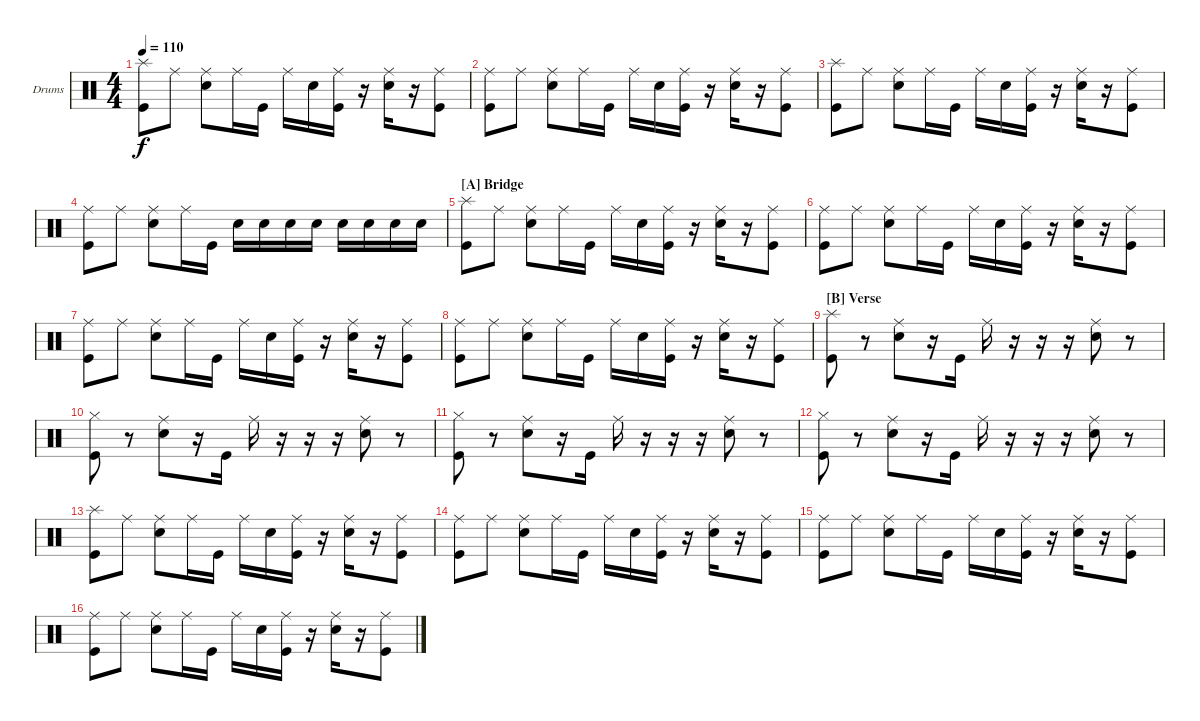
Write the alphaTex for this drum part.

\defaultSystemsLayout 4
\bracketExtendMode groupsimilarinstruments
\firstSystemTrackNameOrientation horizontal
\otherSystemsTrackNameOrientation horizontal
\track ("Drumkit" "Drums") {instrument percussion}
\staff {score}
\articulation defaults
\ts (4 4)
\tempo 110
\clef neutral
\ks c
("Splash (hit)" "Kick (hit)").8{dy f} "Ride (middle)".8 ("Snare (hit) 2" "Ride (middle)").8 "Ride (middle)".16 "Kick (hit)".16 "Ride (middle)".16 "Snare (hit) 2".16 ("Kick (hit)" "Ride (middle)").16 r.16 ("Snare (hit) 2" "Ride (middle)").16 r.16 ("Kick (hit)" "Ride (middle)").8 |
("Kick (hit)" "Ride (middle)").8 "Ride (middle)".8 ("Snare (hit) 2" "Ride (middle)").8 "Ride (middle)".16 "Kick (hit)".16 "Ride (middle)".16 "Snare (hit) 2".16 ("Kick (hit)" "Ride (middle)").16 r.16 ("Snare (hit) 2" "Ride (middle)").16 r.16 ("Kick (hit)" "Ride (middle)").8 |
("Splash (hit)" "Kick (hit)").8 "Ride (middle)".8 ("Snare (hit) 2" "Ride (middle)").8 "Ride (middle)".16 "Kick (hit)".16 "Ride (middle)".16 "Snare (hit) 2".16 ("Kick (hit)" "Ride (middle)").16 r.16 ("Snare (hit) 2" "Ride (middle)").16 r.16 ("Kick (hit)" "Ride (middle)").8 |
("Kick (hit)" "Ride (middle)").8 "Ride (middle)".8 ("Snare (hit) 2" "Ride (middle)").8 "Ride (middle)".16 "Kick (hit)".16 "Snare (hit) 2".16 "Snare (hit) 2".16 "Snare (hit) 2".16 "Snare (hit) 2".16 "Snare (hit) 2".16 "Snare (hit) 2".16 "Snare (hit) 2".16 "Snare (hit) 2".16 |
\section ("A" "Bridge ")
("Splash (hit)" "Kick (hit)").8 "Ride (middle)".8 ("Snare (hit) 2" "Ride (middle)").8 "Ride (middle)".16 "Kick (hit)".16 "Ride (middle)".16 "Snare (hit) 2".16 ("Kick (hit)" "Ride (middle)").16 r.16 ("Snare (hit) 2" "Ride (middle)").16 r.16 ("Kick (hit)" "Ride (middle)").8 |
("Kick (hit)" "Ride (middle)").8 "Ride (middle)".8 ("Snare (hit) 2" "Ride (middle)").8 "Ride (middle)".16 "Kick (hit)".16 "Ride (middle)".16 "Snare (hit) 2".16 ("Kick (hit)" "Ride (middle)").16 r.16 ("Snare (hit) 2" "Ride (middle)").16 r.16 ("Kick (hit)" "Ride (middle)").8 |
("Kick (hit)" "Ride (middle)").8 "Ride (middle)".8 ("Snare (hit) 2" "Ride (middle)").8 "Ride (middle)".16 "Kick (hit)".16 "Ride (middle)".16 "Snare (hit) 2".16 ("Kick (hit)" "Ride (middle)").16 r.16 ("Snare (hit) 2" "Ride (middle)").16 r.16 ("Kick (hit)" "Ride (middle)").8 |
("Kick (hit)" "Ride (middle)").8 "Ride (middle)".8 ("Snare (hit) 2" "Ride (middle)").8 "Ride (middle)".16 "Kick (hit)".16 "Ride (middle)".16 "Snare (hit) 2".16 ("Kick (hit)" "Ride (middle)").16 r.16 ("Snare (hit) 2" "Ride (middle)").16 r.16 ("Kick (hit)" "Ride (middle)").8 |
\section ("B" "Verse")
("Splash (hit)" "Kick (hit)").8 r.8 ("Snare (hit) 2" "Ride (middle)").8 r.16 "Kick (hit)".16 "Ride (middle)".16 r.16 r.16 r.16 ("Snare (hit) 2" "Ride (middle)").8 r.8 |
("Kick (hit)" "Hi-Hat (closed)").8 r.8 ("Snare (hit) 2" "Ride (middle)").8 r.16 "Kick (hit)".16 "Ride (middle)".16 r.16 r.16 r.16 ("Snare (hit) 2" "Ride (middle)").8 r.8 |
("Kick (hit)" "Hi-Hat (closed)").8 r.8 ("Snare (hit) 2" "Ride (middle)").8 r.16 "Kick (hit)".16 "Ride (middle)".16 r.16 r.16 r.16 ("Snare (hit) 2" "Ride (middle)").8 r.8 |
("Kick (hit)" "Hi-Hat (closed)").8 r.8 ("Snare (hit) 2" "Ride (middle)").8 r.16 "Kick (hit)".16 "Ride (middle)".16 r.16 r.16 r.16 ("Snare (hit) 2" "Ride (middle)").8 r.8 |
("Splash (hit)" "Kick (hit)").8 "Ride (middle)".8 ("Snare (hit) 2" "Ride (middle)").8 "Ride (middle)".16 "Kick (hit)".16 "Ride (middle)".16 "Snare (hit) 2".16 ("Kick (hit)" "Ride (middle)").16 r.16 ("Snare (hit) 2" "Ride (middle)").16 r.16 ("Kick (hit)" "Ride (middle)").8 |
("Kick (hit)" "Ride (middle)").8 "Ride (middle)".8 ("Snare (hit) 2" "Ride (middle)").8 "Ride (middle)".16 "Kick (hit)".16 "Ride (middle)".16 "Snare (hit) 2".16 ("Kick (hit)" "Ride (middle)").16 r.16 ("Snare (hit) 2" "Ride (middle)").16 r.16 ("Kick (hit)" "Ride (middle)").8 |
("Kick (hit)" "Ride (middle)").8 "Ride (middle)".8 ("Snare (hit) 2" "Ride (middle)").8 "Ride (middle)".16 "Kick (hit)".16 "Ride (middle)".16 "Snare (hit) 2".16 ("Kick (hit)" "Ride (middle)").16 r.16 ("Snare (hit) 2" "Ride (middle)").16 r.16 ("Kick (hit)" "Ride (middle)").8 |
("Kick (hit)" "Ride (middle)").8 "Ride (middle)".8 ("Snare (hit) 2" "Ride (middle)").8 "Ride (middle)".16 "Kick (hit)".16 "Ride (middle)".16 "Snare (hit) 2".16 ("Kick (hit)" "Ride (middle)").16 r.16 ("Snare (hit) 2" "Ride (middle)").16 r.16 ("Kick (hit)" "Ride (middle)").8
